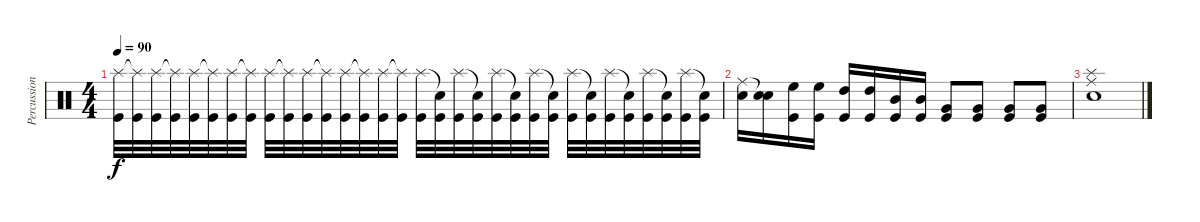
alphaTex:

\track ("Percussion" "Percussion") {instrument percussion}
\staff {score}
\articulation defaults
\ts (4 4)
\tempo 90
\clef neutral
\ks c
("Splash (hit)" "Kick (hit)").32{dy f} ("Splash (hit)"{t} "Kick (hit)").32 ("Splash (hit)" "Kick (hit)").32 ("Splash (hit)"{t} "Kick (hit)").32 ("Splash (hit)" "Kick (hit)").32 ("Splash (hit)"{t} "Kick (hit)").32 ("Splash (hit)" "Kick (hit)").32 ("Splash (hit)"{t} "Kick (hit)").32 ("Splash (hit)" "Kick (hit)").32 ("Splash (hit)"{t} "Kick (hit)").32 ("Splash (hit)" "Kick (hit)").32 ("Splash (hit)"{t} "Kick (hit)").32 ("Splash (hit)" "Kick (hit)").32 ("Splash (hit)"{t} "Kick (hit)").32 ("Splash (hit)" "Kick (hit)").32 ("Splash (hit)"{t} "Kick (hit)").32 ("Splash (hit)" "Kick (hit)").32 ("Snare (hit)"{t} "Kick (hit)").32 ("Splash (hit)" "Kick (hit)").32 ("Snare (hit)"{t} "Kick (hit)").32 ("Splash (hit)" "Kick (hit)").32 ("Snare (hit)"{t} "Kick (hit)").32 ("Splash (hit)" "Kick (hit)").32 ("Snare (hit)"{t} "Kick (hit)").32 ("Splash (hit)" "Kick (hit)").32 ("Snare (hit)"{t} "Kick (hit)").32 ("Splash (hit)" "Kick (hit)").32 ("Snare (hit)"{t} "Kick (hit)").32 ("Splash (hit)" "Kick (hit)").32 ("Snare (hit)"{t} "Kick (hit)").32 ("Splash (hit)" "Kick (hit)").32 ("Snare (hit)"{t} "Kick (hit)").32 |
("Ride (middle)" "Electric Snare (hit)").16 ("Snare (hit)"{t} "Electric Snare (hit)").16 ("Kick (hit)" "High Floor Tom (hit)").16 ("Kick (hit)" "High Floor Tom (hit)").16 ("Kick (hit)" "High Tom (hit)").16 ("Kick (hit)" "High Tom (hit)").16 ("Kick (hit)" "Mid Tom (hit)").16 ("Kick (hit)" "Mid Tom (hit)").16 ("Kick (hit)" "Very Low Tom (hit)").8 ("Kick (hit)" "Very Low Tom (hit)").8 ("Kick (hit)" "Very Low Tom (hit)").8 ("Kick (hit)" "Very Low Tom (hit)").8 |
("Electric Snare (hit)" "Splash (hit)" "Ride (middle)").1
